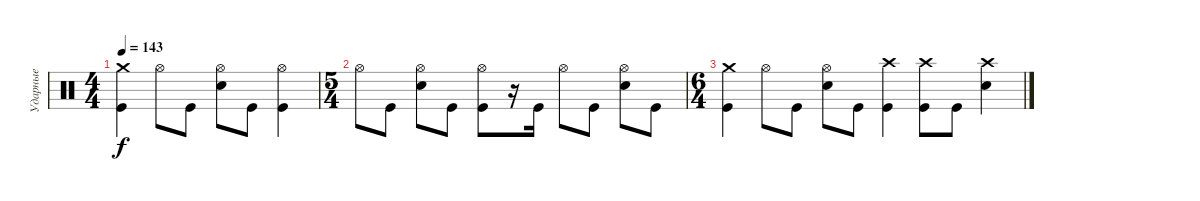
\track ("Ударные" "Ударные") {instrument percussion}
\staff {score}
\articulation defaults
\ts (4 4)
\tempo 143
\clef neutral
\ks c
("Crash medium (hit)" "Kick (hit)").4{dy f} "Hi-Hat (open)".8 "Kick (hit)".8 ("Hi-Hat (open)" "Electric Snare (hit)").8 "Kick (hit)".8 ("Hi-Hat (open)" "Kick (hit)").4 |
\ts (5 4)
"Hi-Hat (open)".8 "Kick (hit)".8 ("Hi-Hat (open)" "Electric Snare (hit)").8 "Kick (hit)".8 ("Hi-Hat (open)" "Kick (hit)").8 r.16 "Kick (hit)".16 "Hi-Hat (open)".8 "Kick (hit)".8 ("Hi-Hat (open)" "Electric Snare (hit)").8 "Kick (hit)".8 |
\ts (6 4)
("Crash medium (hit)" "Kick (hit)").4 "Hi-Hat (open)".8 "Kick (hit)".8 ("Hi-Hat (open)" "Electric Snare (hit)").8 "Kick (hit)".8 ("Crash high (hit)" "Kick (hit)").4 ("Crash high (hit)" "Kick (hit)").8 "Kick (hit)".8 ("Crash high (hit)" "Electric Snare (hit)").4
